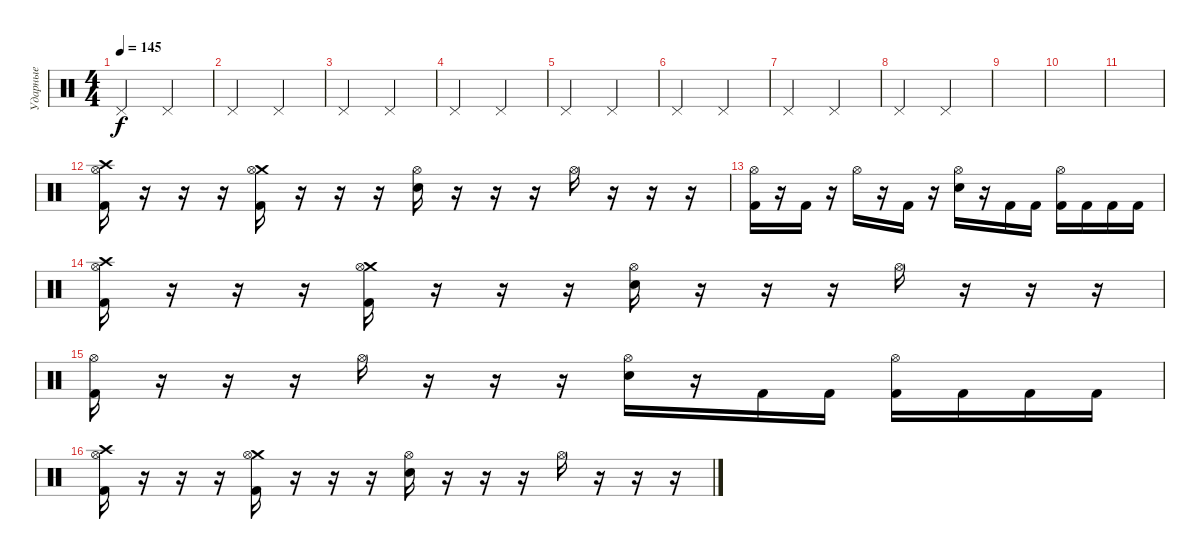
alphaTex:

\track ("Ударные" "Ударные") {instrument percussion}
\staff {score}
\articulation defaults
\ts (4 4)
\tempo 145
\clef neutral
\ks c "Pedal Hi-Hat (hit)".2{dy f} "Pedal Hi-Hat (hit)".2
|
"Pedal Hi-Hat (hit)".2 "Pedal Hi-Hat (hit)".2 |
"Pedal Hi-Hat (hit)".2 "Pedal Hi-Hat (hit)".2 |
"Pedal Hi-Hat (hit)".2 "Pedal Hi-Hat (hit)".2 |
"Pedal Hi-Hat (hit)".2 "Pedal Hi-Hat (hit)".2 |
"Pedal Hi-Hat (hit)".2 "Pedal Hi-Hat (hit)".2 |
"Pedal Hi-Hat (hit)".2 "Pedal Hi-Hat (hit)".2 |
"Pedal Hi-Hat (hit)".2 "Pedal Hi-Hat (hit)".2 |
|
|
|
("Crash high (hit)" "Hi-Hat (open)" "Kick (hit) 2").16 r.16 r.16 r.16 ("Crash medium (hit)" "Hi-Hat (open)" "Kick (hit) 2").16 r.16 r.16 r.16 ("Hi-Hat (open)" "Electric Snare (hit)").16 r.16 r.16 r.16 "Hi-Hat (open)".16 r.16 r.16 r.16 |
("Hi-Hat (open)" "Kick (hit) 2").16 r.16 "Kick (hit) 2".16 r.16 "Hi-Hat (open)".16 r.16 "Kick (hit) 2".16 r.16 ("Hi-Hat (open)" "Electric Snare (hit)").16 r.16 "Kick (hit) 2".16 "Kick (hit) 2".16 ("Hi-Hat (open)" "Kick (hit) 2").16 "Kick (hit) 2".16 "Kick (hit) 2".16 "Kick (hit) 2".16 |
("Crash high (hit)" "Hi-Hat (open)" "Kick (hit) 2").16 r.16 r.16 r.16 ("Crash medium (hit)" "Hi-Hat (open)" "Kick (hit) 2").16 r.16 r.16 r.16 ("Hi-Hat (open)" "Electric Snare (hit)").16 r.16 r.16 r.16 "Hi-Hat (open)".16 r.16 r.16 r.16 |
("Hi-Hat (open)" "Kick (hit) 2").16 r.16 r.16 r.16 "Hi-Hat (open)".16 r.16 r.16 r.16 ("Hi-Hat (open)" "Electric Snare (hit)").16 r.16 "Kick (hit) 2".16 "Kick (hit) 2".16 ("Hi-Hat (open)" "Kick (hit) 2").16 "Kick (hit) 2".16 "Kick (hit) 2".16 "Kick (hit) 2".16 |
("Crash high (hit)" "Hi-Hat (open)" "Kick (hit) 2").16 r.16 r.16 r.16 ("Crash medium (hit)" "Hi-Hat (open)" "Kick (hit) 2").16 r.16 r.16 r.16 ("Hi-Hat (open)" "Electric Snare (hit)").16 r.16 r.16 r.16 "Hi-Hat (open)".16 r.16 r.16 r.16
